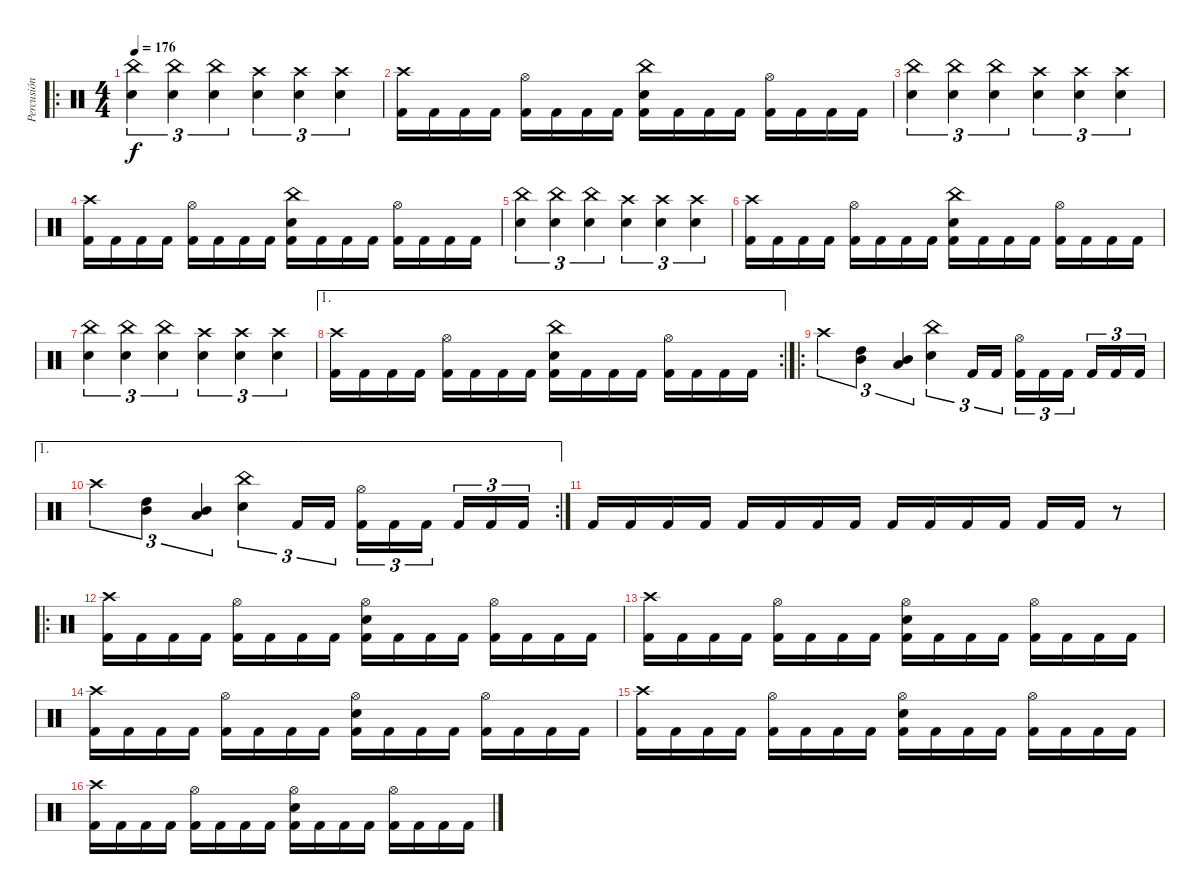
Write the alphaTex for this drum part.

\track ("Percusión" "Percusión") {instrument percussion}
\staff {score}
\articulation defaults
\ro
\ts (4 4)
\tempo 176
\clef neutral
\ks c
("China (hit)" "Electric Snare (hit)").4{tu (3 2) dy f} ("China (hit)" "Electric Snare (hit)").4{tu (3 2)} ("China (hit)" "Electric Snare (hit)").4{tu (3 2)} ("Crash high (hit)" "Electric Snare (hit)").4{tu (3 2)} ("Crash high (hit)" "Electric Snare (hit)").4{tu (3 2)} ("Crash high (hit)" "Electric Snare (hit)").4{tu (3 2)} |
("Crash high (hit)" "Kick (hit) 2").16 "Kick (hit) 2".16 "Kick (hit) 2".16 "Kick (hit) 2".16 ("Hi-Hat (open)" "Kick (hit) 2").16 "Kick (hit) 2".16 "Kick (hit) 2".16 "Kick (hit) 2".16 ("China (hit)" "Electric Snare (hit)" "Kick (hit) 2").16 "Kick (hit) 2".16 "Kick (hit) 2".16 "Kick (hit) 2".16 ("Hi-Hat (open)" "Kick (hit) 2").16 "Kick (hit) 2".16 "Kick (hit) 2".16 "Kick (hit) 2".16 |
("China (hit)" "Electric Snare (hit)").4{tu (3 2)} ("China (hit)" "Electric Snare (hit)").4{tu (3 2)} ("China (hit)" "Electric Snare (hit)").4{tu (3 2)} ("Crash high (hit)" "Electric Snare (hit)").4{tu (3 2)} ("Crash high (hit)" "Electric Snare (hit)").4{tu (3 2)} ("Crash high (hit)" "Electric Snare (hit)").4{tu (3 2)} |
("Crash high (hit)" "Kick (hit) 2").16 "Kick (hit) 2".16 "Kick (hit) 2".16 "Kick (hit) 2".16 ("Hi-Hat (open)" "Kick (hit) 2").16 "Kick (hit) 2".16 "Kick (hit) 2".16 "Kick (hit) 2".16 ("China (hit)" "Electric Snare (hit)" "Kick (hit) 2").16 "Kick (hit) 2".16 "Kick (hit) 2".16 "Kick (hit) 2".16 ("Hi-Hat (open)" "Kick (hit) 2").16 "Kick (hit) 2".16 "Kick (hit) 2".16 "Kick (hit) 2".16 |
("China (hit)" "Electric Snare (hit)").4{tu (3 2)} ("China (hit)" "Electric Snare (hit)").4{tu (3 2)} ("China (hit)" "Electric Snare (hit)").4{tu (3 2)} ("Crash high (hit)" "Electric Snare (hit)").4{tu (3 2)} ("Crash high (hit)" "Electric Snare (hit)").4{tu (3 2)} ("Crash high (hit)" "Electric Snare (hit)").4{tu (3 2)} |
("Crash high (hit)" "Kick (hit) 2").16 "Kick (hit) 2".16 "Kick (hit) 2".16 "Kick (hit) 2".16 ("Hi-Hat (open)" "Kick (hit) 2").16 "Kick (hit) 2".16 "Kick (hit) 2".16 "Kick (hit) 2".16 ("China (hit)" "Electric Snare (hit)" "Kick (hit) 2").16 "Kick (hit) 2".16 "Kick (hit) 2".16 "Kick (hit) 2".16 ("Hi-Hat (open)" "Kick (hit) 2").16 "Kick (hit) 2".16 "Kick (hit) 2".16 "Kick (hit) 2".16 |
("China (hit)" "Electric Snare (hit)").4{tu (3 2)} ("China (hit)" "Electric Snare (hit)").4{tu (3 2)} ("China (hit)" "Electric Snare (hit)").4{tu (3 2)} ("Crash high (hit)" "Electric Snare (hit)").4{tu (3 2)} ("Crash high (hit)" "Electric Snare (hit)").4{tu (3 2)} ("Crash high (hit)" "Electric Snare (hit)").4{tu (3 2)} |
\ae 1
\rc 2
("Crash high (hit)" "Kick (hit) 2").16 "Kick (hit) 2".16 "Kick (hit) 2".16 "Kick (hit) 2".16 ("Hi-Hat (open)" "Kick (hit) 2").16 "Kick (hit) 2".16 "Kick (hit) 2".16 "Kick (hit) 2".16 ("China (hit)" "Electric Snare (hit)" "Kick (hit) 2").16 "Kick (hit) 2".16 "Kick (hit) 2".16 "Kick (hit) 2".16 ("Hi-Hat (open)" "Kick (hit) 2").16 "Kick (hit) 2".16 "Kick (hit) 2".16 "Kick (hit) 2".16 |
\ro "Crash high (hit)".4{tu (3 2)}
("High Tom (hit)" "Mid Tom (hit)").4{tu (3 2)} ("Low Tom (hit)" "Mid Tom (hit)").4{tu (3 2)} ("China (hit)" "Electric Snare (hit)").4{tu (3 2)} "Kick (hit) 2".16{tu (3 2)} "Kick (hit) 2".16{tu (3 2)} ("Hi-Hat (open)" "Kick (hit) 2").16{tu (3 2)} "Kick (hit) 2".16{tu (3 2)} "Kick (hit) 2".16{tu (3 2)} "Kick (hit) 2".16{tu (3 2)} "Kick (hit) 2".16{tu (3 2)} "Kick (hit) 2".16{tu (3 2)} |
\ae 1
\rc 2 "Crash high (hit)".4{tu (3 2)}
("High Tom (hit)" "Mid Tom (hit)").4{tu (3 2)} ("Low Tom (hit)" "Mid Tom (hit)").4{tu (3 2)} ("China (hit)" "Electric Snare (hit)").4{tu (3 2)} "Kick (hit) 2".16{tu (3 2)} "Kick (hit) 2".16{tu (3 2)} ("Hi-Hat (open)" "Kick (hit) 2").16{tu (3 2)} "Kick (hit) 2".16{tu (3 2)} "Kick (hit) 2".16{tu (3 2)} "Kick (hit) 2".16{tu (3 2)} "Kick (hit) 2".16{tu (3 2)} "Kick (hit) 2".16{tu (3 2)} |
"Kick (hit) 2".16 "Kick (hit) 2".16 "Kick (hit) 2".16 "Kick (hit) 2".16 "Kick (hit) 2".16 "Kick (hit) 2".16 "Kick (hit) 2".16 "Kick (hit) 2".16 "Kick (hit) 2".16 "Kick (hit) 2".16 "Kick (hit) 2".16 "Kick (hit) 2".16 "Kick (hit) 2".16 "Kick (hit) 2".16 r.8 |
\ro
("Crash high (hit)" "Kick (hit) 2").16 "Kick (hit) 2".16 "Kick (hit) 2".16 "Kick (hit) 2".16 ("Hi-Hat (open)" "Kick (hit) 2").16 "Kick (hit) 2".16 "Kick (hit) 2".16 "Kick (hit) 2".16 ("Hi-Hat (open)" "Electric Snare (hit)" "Kick (hit) 2").16 "Kick (hit) 2".16 "Kick (hit) 2".16 "Kick (hit) 2".16 ("Hi-Hat (open)" "Kick (hit) 2").16 "Kick (hit) 2".16 "Kick (hit) 2".16 "Kick (hit) 2".16 |
("Crash high (hit)" "Kick (hit) 2").16 "Kick (hit) 2".16 "Kick (hit) 2".16 "Kick (hit) 2".16 ("Hi-Hat (open)" "Kick (hit) 2").16 "Kick (hit) 2".16 "Kick (hit) 2".16 "Kick (hit) 2".16 ("Hi-Hat (open)" "Electric Snare (hit)" "Kick (hit) 2").16 "Kick (hit) 2".16 "Kick (hit) 2".16 "Kick (hit) 2".16 ("Hi-Hat (open)" "Kick (hit) 2").16 "Kick (hit) 2".16 "Kick (hit) 2".16 "Kick (hit) 2".16 |
("Crash high (hit)" "Kick (hit) 2").16 "Kick (hit) 2".16 "Kick (hit) 2".16 "Kick (hit) 2".16 ("Hi-Hat (open)" "Kick (hit) 2").16 "Kick (hit) 2".16 "Kick (hit) 2".16 "Kick (hit) 2".16 ("Hi-Hat (open)" "Electric Snare (hit)" "Kick (hit) 2").16 "Kick (hit) 2".16 "Kick (hit) 2".16 "Kick (hit) 2".16 ("Hi-Hat (open)" "Kick (hit) 2").16 "Kick (hit) 2".16 "Kick (hit) 2".16 "Kick (hit) 2".16 |
("Crash high (hit)" "Kick (hit) 2").16 "Kick (hit) 2".16 "Kick (hit) 2".16 "Kick (hit) 2".16 ("Hi-Hat (open)" "Kick (hit) 2").16 "Kick (hit) 2".16 "Kick (hit) 2".16 "Kick (hit) 2".16 ("Hi-Hat (open)" "Electric Snare (hit)" "Kick (hit) 2").16 "Kick (hit) 2".16 "Kick (hit) 2".16 "Kick (hit) 2".16 ("Hi-Hat (open)" "Kick (hit) 2").16 "Kick (hit) 2".16 "Kick (hit) 2".16 "Kick (hit) 2".16 |
("Crash high (hit)" "Kick (hit) 2").16 "Kick (hit) 2".16 "Kick (hit) 2".16 "Kick (hit) 2".16 ("Hi-Hat (open)" "Kick (hit) 2").16 "Kick (hit) 2".16 "Kick (hit) 2".16 "Kick (hit) 2".16 ("Hi-Hat (open)" "Electric Snare (hit)" "Kick (hit) 2").16 "Kick (hit) 2".16 "Kick (hit) 2".16 "Kick (hit) 2".16 ("Hi-Hat (open)" "Kick (hit) 2").16 "Kick (hit) 2".16 "Kick (hit) 2".16 "Kick (hit) 2".16
